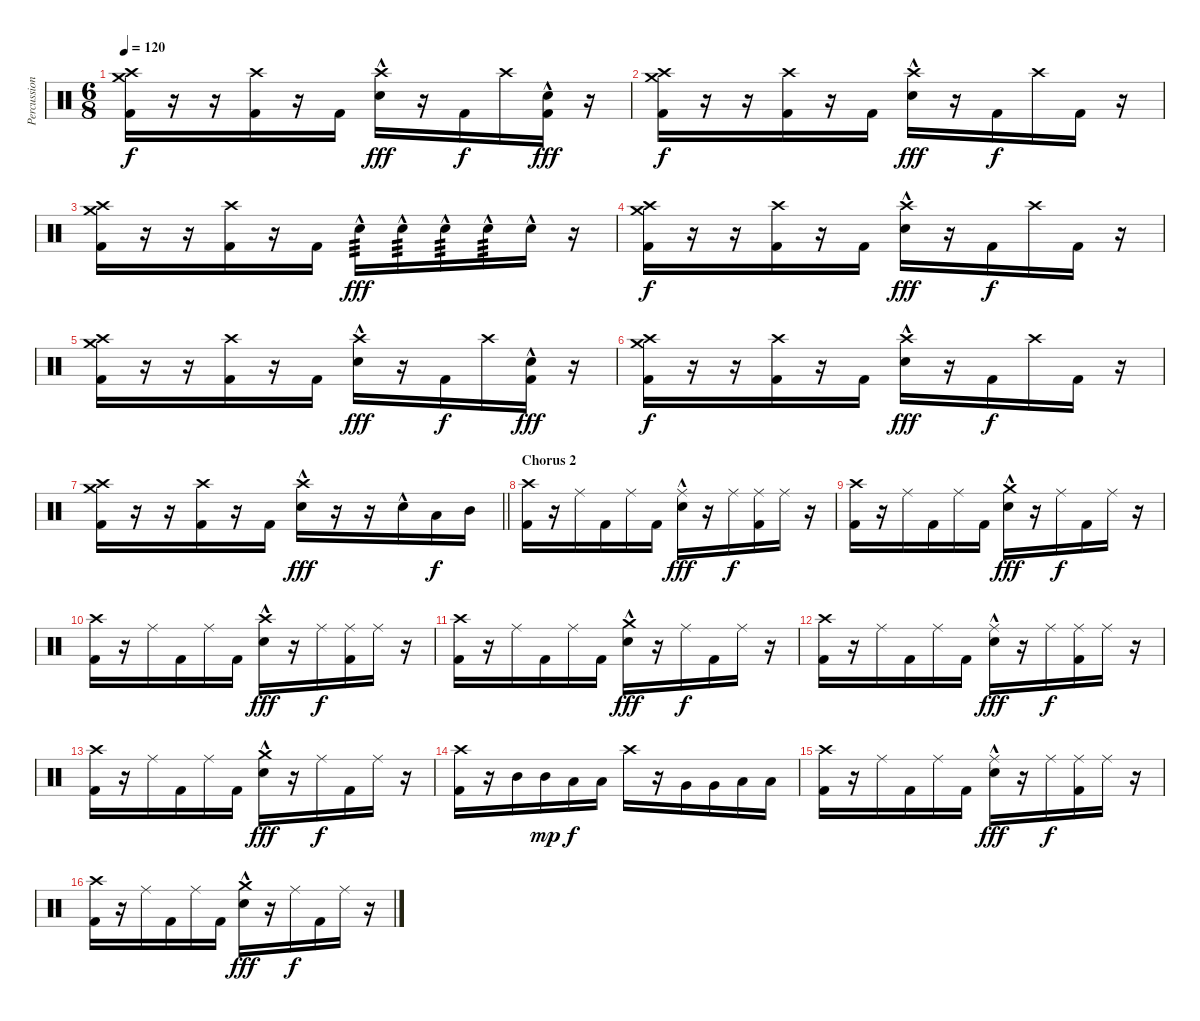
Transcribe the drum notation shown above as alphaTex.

\track ("Percussion" "Percussion") {instrument percussion}
\staff {score}
\articulation defaults
\ts (6 8)
\tempo 120
\clef neutral
\ks c
("Kick (hit) 2" "Crash medium (hit)" "Crash high (hit)").16{dy f} r.16 r.16 ("Kick (hit) 2" "Crash high (hit)").16 r.16 "Kick (hit) 2".16 ("Snare (hit) 2"{hac} "Crash high (hit)").16{dy fff} r.16 "Kick (hit) 2".16{dy f} "Crash high (hit)".16 ("Kick (hit) 2" "Snare (hit) 2"{hac}).16{dy fff} r.16 |
("Kick (hit) 2" "Crash medium (hit)" "Crash high (hit)").16{dy f} r.16 r.16 ("Kick (hit) 2" "Crash high (hit)").16 r.16 "Kick (hit) 2".16 ("Snare (hit) 2"{hac} "Crash high (hit)").16{dy fff} r.16 "Kick (hit) 2".16{dy f} "Crash high (hit)".16 "Kick (hit) 2".16 r.16 |
("Kick (hit) 2" "Crash medium (hit)" "Crash high (hit)").16 r.16 r.16 ("Kick (hit) 2" "Crash high (hit)").16 r.16 "Kick (hit) 2".16 "Snare (hit) 2"{hac}.16{tp 3 dy fff} "Snare (hit) 2"{hac}.16{tp 3} "Snare (hit) 2"{hac}.16{tp 3} "Snare (hit) 2"{hac}.16{tp 3} "Snare (hit) 2"{hac}.16 r.16 |
("Kick (hit) 2" "Crash medium (hit)" "Crash high (hit)").16{dy f} r.16 r.16 ("Kick (hit) 2" "Crash high (hit)").16 r.16 "Kick (hit) 2".16 ("Snare (hit) 2"{hac} "Crash high (hit)").16{dy fff} r.16 "Kick (hit) 2".16{dy f} "Crash high (hit)".16 "Kick (hit) 2".16 r.16 |
("Kick (hit) 2" "Crash medium (hit)" "Crash high (hit)").16 r.16 r.16 ("Kick (hit) 2" "Crash high (hit)").16 r.16 "Kick (hit) 2".16 ("Snare (hit) 2"{hac} "Crash high (hit)").16{dy fff} r.16 "Kick (hit) 2".16{dy f} "Crash high (hit)".16 ("Kick (hit) 2" "Snare (hit) 2"{hac}).16{dy fff} r.16 |
("Kick (hit) 2" "Crash medium (hit)" "Crash high (hit)").16{dy f} r.16 r.16 ("Kick (hit) 2" "Crash high (hit)").16 r.16 "Kick (hit) 2".16 ("Snare (hit) 2"{hac} "Crash high (hit)").16{dy fff} r.16 "Kick (hit) 2".16{dy f} "Crash high (hit)".16 "Kick (hit) 2".16 r.16 |
\barLineRight lightlight
("Kick (hit) 2" "Crash medium (hit)" "Crash high (hit)").16 r.16 r.16 ("Kick (hit) 2" "Crash high (hit)").16 r.16 "Kick (hit) 2".16 ("Snare (hit) 2"{hac} "Crash high (hit)").16{dy fff} r.16 r.16 "Snare (hit) 2"{hac}.16 "Low Tom (hit)".16{dy f} "Mid Tom (hit)".16 |
\section ("" "Chorus 2")
("Kick (hit) 2" "Crash high (hit)").16 r.16 "Ride (middle)".16 "Kick (hit) 2".16 "Ride (middle)".16 "Kick (hit) 2".16 ("Snare (hit) 2"{hac} "Ride (middle)").16{dy fff} r.16 "Ride (middle)".16{dy f} ("Kick (hit) 2" "Ride (middle)").16 "Ride (middle)".16 r.16 |
("Kick (hit) 2" "Crash high (hit)").16 r.16 "Ride (middle)".16 "Kick (hit) 2".16 "Ride (middle)".16 "Kick (hit) 2".16 ("Snare (hit) 2"{hac} "Crash medium (hit)").16{dy fff} r.16 "Ride (middle)".16{dy f} "Kick (hit) 2".16 "Ride (middle)".16 r.16 |
("Kick (hit) 2" "Crash high (hit)").16 r.16 "Ride (middle)".16 "Kick (hit) 2".16 "Ride (middle)".16 "Kick (hit) 2".16 ("Snare (hit) 2"{hac} "Crash high (hit)").16{dy fff} r.16 "Ride (middle)".16{dy f} ("Kick (hit) 2" "Ride (middle)").16 "Ride (middle)".16 r.16 |
("Kick (hit) 2" "Crash high (hit)").16 r.16 "Ride (middle)".16 "Kick (hit) 2".16 "Ride (middle)".16 "Kick (hit) 2".16 ("Snare (hit) 2"{hac} "Crash medium (hit)").16{dy fff} r.16 "Ride (middle)".16{dy f} "Kick (hit) 2".16 "Ride (middle)".16 r.16 |
("Kick (hit) 2" "Crash high (hit)").16 r.16 "Ride (middle)".16 "Kick (hit) 2".16 "Ride (middle)".16 "Kick (hit) 2".16 ("Snare (hit) 2"{hac} "Ride (middle)").16{dy fff} r.16 "Ride (middle)".16{dy f} ("Kick (hit) 2" "Ride (middle)").16 "Ride (middle)".16 r.16 |
("Kick (hit) 2" "Crash high (hit)").16 r.16 "Ride (middle)".16 "Kick (hit) 2".16 "Ride (middle)".16 "Kick (hit) 2".16 ("Snare (hit) 2"{hac} "Crash medium (hit)").16{dy fff} r.16 "Ride (middle)".16{dy f} "Kick (hit) 2".16 "Ride (middle)".16 r.16 |
("Kick (hit) 2" "Crash high (hit)").16 r.16 "Mid Tom (hit)".16 "Mid Tom (hit)".16{dy mp} "Low Tom (hit)".16{dy f} "Low Tom (hit)".16 "Crash high (hit)".16 r.16 "Very Low Tom (hit)".16 "Very Low Tom (hit)".16 "Low Floor Tom (hit)".16 "Low Floor Tom (hit)".16 |
("Kick (hit) 2" "Crash high (hit)").16 r.16 "Ride (middle)".16 "Kick (hit) 2".16 "Ride (middle)".16 "Kick (hit) 2".16 ("Snare (hit) 2"{hac} "Ride (middle)").16{dy fff} r.16 "Ride (middle)".16{dy f} ("Kick (hit) 2" "Ride (middle)").16 "Ride (middle)".16 r.16 |
("Kick (hit) 2" "Crash high (hit)").16 r.16 "Ride (middle)".16 "Kick (hit) 2".16 "Ride (middle)".16 "Kick (hit) 2".16 ("Snare (hit) 2"{hac} "Crash medium (hit)").16{dy fff} r.16 "Ride (middle)".16{dy f} "Kick (hit) 2".16 "Ride (middle)".16 r.16
